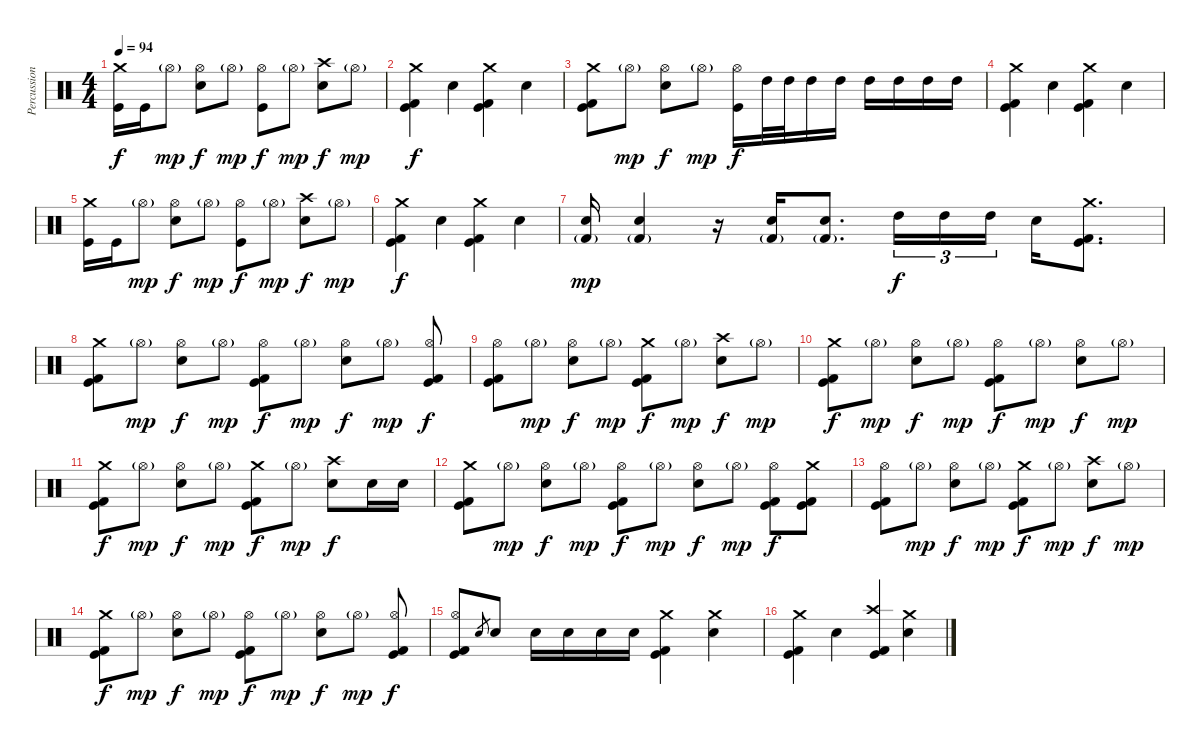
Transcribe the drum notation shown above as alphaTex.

\track ("Percussion" "Percussion") {solo instrument percussion}
\staff {score}
\articulation defaults
\ts (4 4)
\tempo 94
\clef neutral
\ks c
("Crash medium (hit)" "Kick (hit)").16{dy f} "Kick (hit)".16 "Hi-Hat (open)"{g}.8{dy mp} ("Hi-Hat (open)" "Electric Snare (hit)").8{dy f} "Hi-Hat (open)"{g}.8{dy mp} ("Hi-Hat (open)" "Kick (hit)").8{dy f} "Hi-Hat (open)"{g}.8{dy mp} ("Crash high (hit)" "Electric Snare (hit)").8{dy f} "Hi-Hat (open)"{g}.8{dy mp} |
("Kick (hit) 2" "Crash medium (hit)" "Kick (hit)").4{dy f} "Electric Snare (hit)".4 ("Kick (hit) 2" "Crash medium (hit)" "Kick (hit)").4 "Electric Snare (hit)".4 |
("Kick (hit) 2" "Crash medium (hit)" "Kick (hit)").8 "Hi-Hat (open)"{g}.8{dy mp} ("Hi-Hat (open)" "Electric Snare (hit)").8{dy f} "Hi-Hat (open)"{g}.8{dy mp} ("Hi-Hat (open)" "Kick (hit)").16{dy f} "High Tom (hit)".32 "High Tom (hit)".32 "High Tom (hit)".16 "High Tom (hit)".16 "High Tom (hit)".16 "High Tom (hit)".16 "High Tom (hit)".16 "High Tom (hit)".16 |
("Kick (hit) 2" "Crash medium (hit)" "Kick (hit)").4 "Electric Snare (hit)".4 ("Kick (hit) 2" "Crash medium (hit)" "Kick (hit)").4 "Electric Snare (hit)".4 |
("Crash medium (hit)" "Kick (hit)").16 "Kick (hit)".16 "Hi-Hat (open)"{g}.8{dy mp} ("Hi-Hat (open)" "Electric Snare (hit)").8{dy f} "Hi-Hat (open)"{g}.8{dy mp} ("Hi-Hat (open)" "Kick (hit)").8{dy f} "Hi-Hat (open)"{g}.8{dy mp} ("Crash high (hit)" "Electric Snare (hit)").8{dy f} "Hi-Hat (open)"{g}.8{dy mp} |
("Kick (hit) 2" "Crash medium (hit)" "Kick (hit)").4{dy f} "Electric Snare (hit)".4 ("Kick (hit) 2" "Crash medium (hit)" "Kick (hit)").4 "Electric Snare (hit)".4 |
("Kick (hit) 2"{g} "Electric Snare (hit)").16{dy mp} ("Kick (hit) 2"{g} "Electric Snare (hit)").4 r.16 ("Kick (hit) 2"{g} "Electric Snare (hit)").16 ("Kick (hit) 2"{g} "Electric Snare (hit)").8{d} "High Tom (hit)".16{tu (3 2) dy f} "High Tom (hit)".16{tu (3 2)} "High Tom (hit)".16{tu (3 2)} "Electric Snare (hit)".16 ("Kick (hit) 2" "Crash medium (hit)" "Kick (hit)").8{d} |
("Kick (hit) 2" "Crash medium (hit)" "Kick (hit)").8 "Hi-Hat (open)"{g}.8{dy mp} ("Hi-Hat (open)" "Electric Snare (hit)").8{dy f} "Hi-Hat (open)"{g}.8{dy mp} ("Kick (hit) 2" "Hi-Hat (open)" "Kick (hit)").8{dy f} "Hi-Hat (open)"{g}.8{dy mp} ("Hi-Hat (open)" "Electric Snare (hit)").8{dy f} "Hi-Hat (open)"{g}.8{dy mp} ("Kick (hit) 2" "Hi-Hat (open)" "Kick (hit)").8{dy f} |
("Kick (hit) 2" "Hi-Hat (open)" "Kick (hit)").8 "Hi-Hat (open)"{g}.8{dy mp} ("Hi-Hat (open)" "Electric Snare (hit)").8{dy f} "Hi-Hat (open)"{g}.8{dy mp} ("Crash medium (hit)" "Kick (hit) 2" "Kick (hit)").8{dy f} "Hi-Hat (open)"{g}.8{dy mp} ("Crash high (hit)" "Electric Snare (hit)").8{dy f} "Hi-Hat (open)"{g}.8{dy mp} |
("Kick (hit) 2" "Crash medium (hit)" "Kick (hit)").8{dy f} "Hi-Hat (open)"{g}.8{dy mp} ("Hi-Hat (open)" "Electric Snare (hit)").8{dy f} "Hi-Hat (open)"{g}.8{dy mp} ("Kick (hit) 2" "Hi-Hat (open)" "Kick (hit)").8{dy f} "Hi-Hat (open)"{g}.8{dy mp} ("Hi-Hat (open)" "Electric Snare (hit)").8{dy f} "Hi-Hat (open)"{g}.8{dy mp} |
("Kick (hit) 2" "Crash medium (hit)" "Kick (hit)").8{dy f} "Hi-Hat (open)"{g}.8{dy mp} ("Hi-Hat (open)" "Electric Snare (hit)").8{dy f} "Hi-Hat (open)"{g}.8{dy mp} ("Crash medium (hit)" "Kick (hit) 2" "Kick (hit)").8{dy f} "Hi-Hat (open)"{g}.8{dy mp} ("Crash high (hit)" "Electric Snare (hit)").8{dy f} "Electric Snare (hit)".16 "Electric Snare (hit)".16 |
("Kick (hit) 2" "Crash medium (hit)" "Kick (hit)").8 "Hi-Hat (open)"{g}.8{dy mp} ("Hi-Hat (open)" "Electric Snare (hit)").8{dy f} "Hi-Hat (open)"{g}.8{dy mp} ("Kick (hit) 2" "Hi-Hat (open)" "Kick (hit)").8{dy f} "Hi-Hat (open)"{g}.8{dy mp} ("Hi-Hat (open)" "Electric Snare (hit)").8{dy f} "Hi-Hat (open)"{g}.8{dy mp} ("Kick (hit) 2" "Hi-Hat (open)" "Kick (hit)").8{dy f} ("Kick (hit) 2" "Crash medium (hit)" "Kick (hit)").8 |
("Kick (hit) 2" "Hi-Hat (open)" "Kick (hit)").8 "Hi-Hat (open)"{g}.8{dy mp} ("Hi-Hat (open)" "Electric Snare (hit)").8{dy f} "Hi-Hat (open)"{g}.8{dy mp} ("Crash medium (hit)" "Kick (hit) 2" "Kick (hit)").8{dy f} "Hi-Hat (open)"{g}.8{dy mp} ("Crash high (hit)" "Electric Snare (hit)").8{dy f} "Hi-Hat (open)"{g}.8{dy mp} |
("Kick (hit) 2" "Crash medium (hit)" "Kick (hit)").8{dy f} "Hi-Hat (open)"{g}.8{dy mp} ("Hi-Hat (open)" "Electric Snare (hit)").8{dy f} "Hi-Hat (open)"{g}.8{dy mp} ("Kick (hit) 2" "Hi-Hat (open)" "Kick (hit)").8{dy f} "Hi-Hat (open)"{g}.8{dy mp} ("Hi-Hat (open)" "Electric Snare (hit)").8{dy f} "Hi-Hat (open)"{g}.8{dy mp} ("Kick (hit) 2" "Hi-Hat (open)" "Kick (hit)").8{dy f} |
("Kick (hit) 2" "Hi-Hat (open)" "Kick (hit)").8 "Snare (hit) 2".8{gr} "Electric Snare (hit)".8 "Electric Snare (hit)".16 "Electric Snare (hit)".16 "Electric Snare (hit)".16 "Electric Snare (hit)".16 ("Kick (hit) 2" "Crash medium (hit)" "Kick (hit)").4 ("Crash medium (hit)" "Electric Snare (hit)").4 |
("Kick (hit) 2" "Crash medium (hit)" "Kick (hit)").4 "Electric Snare (hit)".4 ("Kick (hit) 2" "Crash high (hit)" "Kick (hit)").4 ("Crash medium (hit)" "Electric Snare (hit)").4
